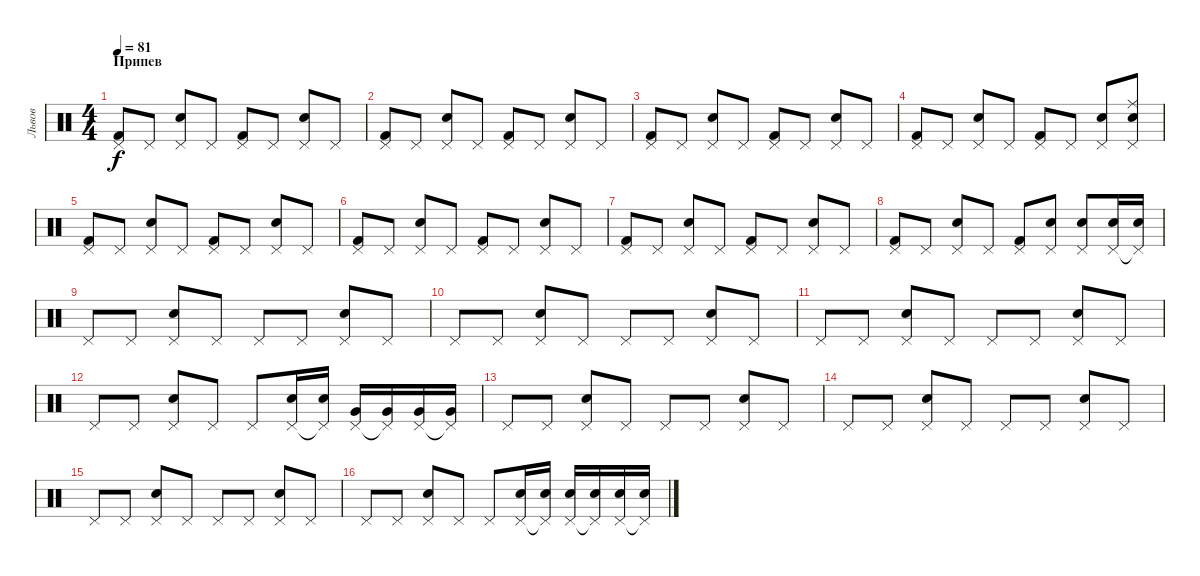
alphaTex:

\track ("Львов" "Львов") {instrument percussion}
\staff {score}
\articulation defaults
\ts (4 4)
\section ("" "Припев")
\tempo 81
\clef neutral
\ks c
("Pedal Hi-Hat (hit)" "Kick (hit) 2").8{dy f} "Pedal Hi-Hat (hit)".8 ("Pedal Hi-Hat (hit)" "Snare (hit) 2").8 "Pedal Hi-Hat (hit)".8 ("Pedal Hi-Hat (hit)" "Kick (hit) 2").8 "Pedal Hi-Hat (hit)".8 ("Pedal Hi-Hat (hit)" "Snare (hit) 2").8 "Pedal Hi-Hat (hit)".8 |
("Pedal Hi-Hat (hit)" "Kick (hit) 2").8 "Pedal Hi-Hat (hit)".8 ("Pedal Hi-Hat (hit)" "Snare (hit) 2").8 "Pedal Hi-Hat (hit)".8 ("Pedal Hi-Hat (hit)" "Kick (hit) 2").8 "Pedal Hi-Hat (hit)".8 ("Pedal Hi-Hat (hit)" "Snare (hit) 2").8 "Pedal Hi-Hat (hit)".8 |
("Pedal Hi-Hat (hit)" "Kick (hit) 2").8 "Pedal Hi-Hat (hit)".8 ("Pedal Hi-Hat (hit)" "Snare (hit) 2").8 "Pedal Hi-Hat (hit)".8 ("Pedal Hi-Hat (hit)" "Kick (hit) 2").8 "Pedal Hi-Hat (hit)".8 ("Pedal Hi-Hat (hit)" "Snare (hit) 2").8 "Pedal Hi-Hat (hit)".8 |
("Pedal Hi-Hat (hit)" "Kick (hit) 2").8 "Pedal Hi-Hat (hit)".8 ("Pedal Hi-Hat (hit)" "Snare (hit) 2").8 "Pedal Hi-Hat (hit)".8 ("Pedal Hi-Hat (hit)" "Kick (hit) 2").8 "Pedal Hi-Hat (hit)".8 ("Pedal Hi-Hat (hit)" "Snare (hit) 2").8 ("Pedal Hi-Hat (hit)" "Ride (middle)" "Snare (hit) 2").8 |
("Pedal Hi-Hat (hit)" "Kick (hit) 2").8 "Pedal Hi-Hat (hit)".8 ("Pedal Hi-Hat (hit)" "Snare (hit) 2").8 "Pedal Hi-Hat (hit)".8 ("Pedal Hi-Hat (hit)" "Kick (hit) 2").8 "Pedal Hi-Hat (hit)".8 ("Pedal Hi-Hat (hit)" "Snare (hit) 2").8 "Pedal Hi-Hat (hit)".8 |
("Pedal Hi-Hat (hit)" "Kick (hit) 2").8 "Pedal Hi-Hat (hit)".8 ("Pedal Hi-Hat (hit)" "Snare (hit) 2").8 "Pedal Hi-Hat (hit)".8 ("Pedal Hi-Hat (hit)" "Kick (hit) 2").8 "Pedal Hi-Hat (hit)".8 ("Pedal Hi-Hat (hit)" "Snare (hit) 2").8 "Pedal Hi-Hat (hit)".8 |
("Pedal Hi-Hat (hit)" "Kick (hit) 2").8 "Pedal Hi-Hat (hit)".8 ("Pedal Hi-Hat (hit)" "Snare (hit) 2").8 "Pedal Hi-Hat (hit)".8 ("Pedal Hi-Hat (hit)" "Kick (hit) 2").8 "Pedal Hi-Hat (hit)".8 ("Pedal Hi-Hat (hit)" "Snare (hit) 2").8 "Pedal Hi-Hat (hit)".8 |
("Pedal Hi-Hat (hit)" "Kick (hit) 2").8 "Pedal Hi-Hat (hit)".8 ("Pedal Hi-Hat (hit)" "Snare (hit) 2").8 "Pedal Hi-Hat (hit)".8 ("Pedal Hi-Hat (hit)" "Kick (hit) 2").8 ("Pedal Hi-Hat (hit)" "Snare (hit) 2").8 ("Pedal Hi-Hat (hit)" "Snare (hit) 2").8 ("Pedal Hi-Hat (hit)" "Snare (hit) 2").16 ("Pedal Hi-Hat (hit)"{t} "Snare (hit) 2").16 |
"Pedal Hi-Hat (hit)".8 "Pedal Hi-Hat (hit)".8 ("Pedal Hi-Hat (hit)" "Snare (hit) 2").8 "Pedal Hi-Hat (hit)".8 "Pedal Hi-Hat (hit)".8 "Pedal Hi-Hat (hit)".8 ("Pedal Hi-Hat (hit)" "Snare (hit) 2").8 "Pedal Hi-Hat (hit)".8 |
"Pedal Hi-Hat (hit)".8 "Pedal Hi-Hat (hit)".8 ("Pedal Hi-Hat (hit)" "Snare (hit) 2").8 "Pedal Hi-Hat (hit)".8 "Pedal Hi-Hat (hit)".8 "Pedal Hi-Hat (hit)".8 ("Pedal Hi-Hat (hit)" "Snare (hit) 2").8 "Pedal Hi-Hat (hit)".8 |
"Pedal Hi-Hat (hit)".8 "Pedal Hi-Hat (hit)".8 ("Pedal Hi-Hat (hit)" "Snare (hit) 2").8 "Pedal Hi-Hat (hit)".8 "Pedal Hi-Hat (hit)".8 "Pedal Hi-Hat (hit)".8 ("Pedal Hi-Hat (hit)" "Snare (hit) 2").8 "Pedal Hi-Hat (hit)".8 |
"Pedal Hi-Hat (hit)".8 "Pedal Hi-Hat (hit)".8 ("Pedal Hi-Hat (hit)" "Snare (hit) 2").8 "Pedal Hi-Hat (hit)".8 "Pedal Hi-Hat (hit)".8 ("Pedal Hi-Hat (hit)" "Electric Snare (hit)").16 ("Pedal Hi-Hat (hit)"{t} "Electric Snare (hit)").16 ("Pedal Hi-Hat (hit)" "Very Low Tom (hit)").16 ("Pedal Hi-Hat (hit)"{t} "Very Low Tom (hit)").16 ("Pedal Hi-Hat (hit)" "Very Low Tom (hit)").16 ("Pedal Hi-Hat (hit)"{t} "Very Low Tom (hit)").16 |
"Pedal Hi-Hat (hit)".8 "Pedal Hi-Hat (hit)".8 ("Pedal Hi-Hat (hit)" "Snare (hit) 2").8 "Pedal Hi-Hat (hit)".8 "Pedal Hi-Hat (hit)".8 "Pedal Hi-Hat (hit)".8 ("Pedal Hi-Hat (hit)" "Snare (hit) 2").8 "Pedal Hi-Hat (hit)".8 |
"Pedal Hi-Hat (hit)".8 "Pedal Hi-Hat (hit)".8 ("Pedal Hi-Hat (hit)" "Snare (hit) 2").8 "Pedal Hi-Hat (hit)".8 "Pedal Hi-Hat (hit)".8 "Pedal Hi-Hat (hit)".8 ("Pedal Hi-Hat (hit)" "Snare (hit) 2").8 "Pedal Hi-Hat (hit)".8 |
"Pedal Hi-Hat (hit)".8 "Pedal Hi-Hat (hit)".8 ("Pedal Hi-Hat (hit)" "Snare (hit) 2").8 "Pedal Hi-Hat (hit)".8 "Pedal Hi-Hat (hit)".8 "Pedal Hi-Hat (hit)".8 ("Pedal Hi-Hat (hit)" "Snare (hit) 2").8 "Pedal Hi-Hat (hit)".8 |
"Pedal Hi-Hat (hit)".8 "Pedal Hi-Hat (hit)".8 ("Pedal Hi-Hat (hit)" "Snare (hit) 2").8 "Pedal Hi-Hat (hit)".8 "Pedal Hi-Hat (hit)".8 ("Pedal Hi-Hat (hit)" "Snare (hit) 2").16 ("Pedal Hi-Hat (hit)"{t} "Snare (hit) 2").16 ("Pedal Hi-Hat (hit)" "Electric Snare (hit)").16 ("Pedal Hi-Hat (hit)"{t} "Electric Snare (hit)").16 ("Pedal Hi-Hat (hit)" "Electric Snare (hit)").16 ("Pedal Hi-Hat (hit)"{t} "Electric Snare (hit)").16
